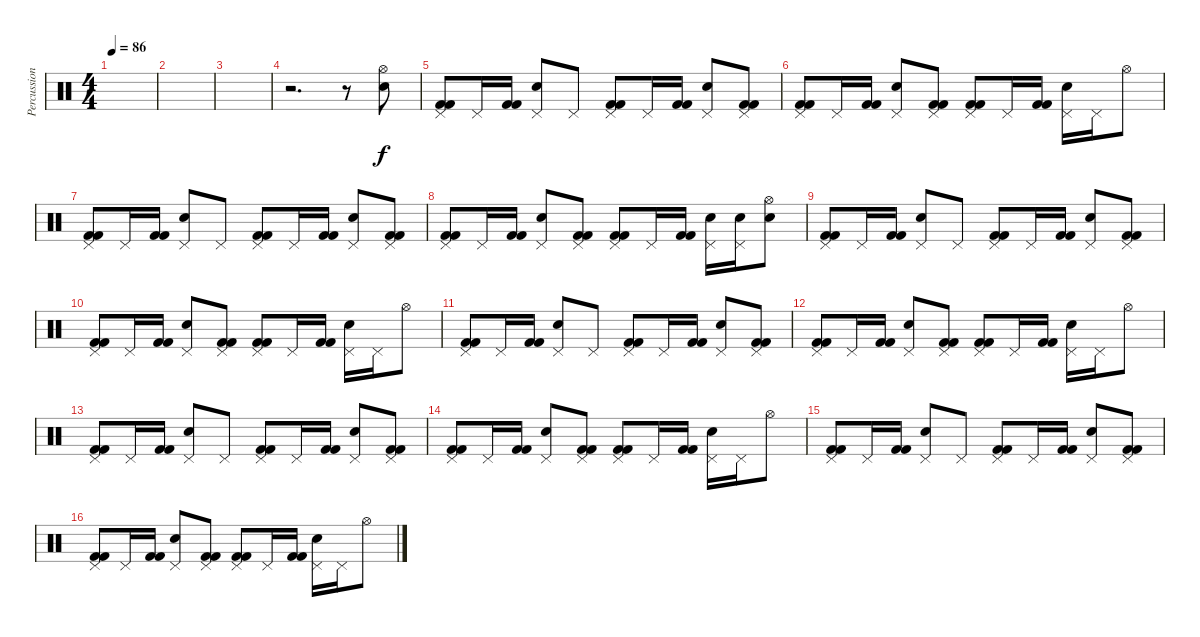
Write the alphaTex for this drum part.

\track ("Percussion" "Percussion") {instrument percussion}
\staff {score}
\articulation defaults
\ts (4 4)
\tempo 86
\clef neutral
\ks c
|
|
|
r.2{d} r.8 ("Hi-Hat (open)" "Snare (hit) 2").8 |
("Pedal Hi-Hat (hit)" "Kick (hit) 2" "Kick (hit) 2").8 "Pedal Hi-Hat (hit)".16 ("Kick (hit) 2" "Kick (hit) 2").16 ("Pedal Hi-Hat (hit)" "Snare (hit) 2").8 "Pedal Hi-Hat (hit)".8 ("Pedal Hi-Hat (hit)" "Kick (hit) 2" "Kick (hit) 2").8 "Pedal Hi-Hat (hit)".16 ("Kick (hit) 2" "Kick (hit) 2").16 ("Pedal Hi-Hat (hit)" "Snare (hit) 2").8 ("Pedal Hi-Hat (hit)" "Kick (hit) 2" "Kick (hit) 2").8 |
("Pedal Hi-Hat (hit)" "Kick (hit) 2" "Kick (hit) 2").8 "Pedal Hi-Hat (hit)".16 ("Kick (hit) 2" "Kick (hit) 2").16 ("Pedal Hi-Hat (hit)" "Snare (hit) 2").8 ("Pedal Hi-Hat (hit)" "Kick (hit) 2" "Kick (hit) 2").8 ("Pedal Hi-Hat (hit)" "Kick (hit) 2" "Kick (hit) 2").8 "Pedal Hi-Hat (hit)".16 ("Kick (hit) 2" "Kick (hit) 2").16 ("Pedal Hi-Hat (hit)" "Snare (hit) 2").16 "Pedal Hi-Hat (hit)".16 "Hi-Hat (open)".8 |
("Pedal Hi-Hat (hit)" "Kick (hit) 2" "Kick (hit) 2").8 "Pedal Hi-Hat (hit)".16 ("Kick (hit) 2" "Kick (hit) 2").16 ("Pedal Hi-Hat (hit)" "Snare (hit) 2").8 "Pedal Hi-Hat (hit)".8 ("Pedal Hi-Hat (hit)" "Kick (hit) 2" "Kick (hit) 2").8 "Pedal Hi-Hat (hit)".16 ("Kick (hit) 2" "Kick (hit) 2").16 ("Pedal Hi-Hat (hit)" "Snare (hit) 2").8 ("Pedal Hi-Hat (hit)" "Kick (hit) 2" "Kick (hit) 2").8 |
("Pedal Hi-Hat (hit)" "Kick (hit) 2" "Kick (hit) 2").8 "Pedal Hi-Hat (hit)".16 ("Kick (hit) 2" "Kick (hit) 2").16 ("Pedal Hi-Hat (hit)" "Snare (hit) 2").8 ("Pedal Hi-Hat (hit)" "Kick (hit) 2" "Kick (hit) 2").8 ("Pedal Hi-Hat (hit)" "Kick (hit) 2" "Kick (hit) 2").8 "Pedal Hi-Hat (hit)".16 ("Kick (hit) 2" "Kick (hit) 2").16 ("Pedal Hi-Hat (hit)" "Snare (hit) 2").16 ("Pedal Hi-Hat (hit)" "Snare (hit) 2").16 ("Hi-Hat (open)" "Snare (hit) 2").8 |
("Pedal Hi-Hat (hit)" "Kick (hit) 2" "Kick (hit) 2").8 "Pedal Hi-Hat (hit)".16 ("Kick (hit) 2" "Kick (hit) 2").16 ("Pedal Hi-Hat (hit)" "Snare (hit) 2").8 "Pedal Hi-Hat (hit)".8 ("Pedal Hi-Hat (hit)" "Kick (hit) 2" "Kick (hit) 2").8 "Pedal Hi-Hat (hit)".16 ("Kick (hit) 2" "Kick (hit) 2").16 ("Pedal Hi-Hat (hit)" "Snare (hit) 2").8 ("Pedal Hi-Hat (hit)" "Kick (hit) 2" "Kick (hit) 2").8 |
("Pedal Hi-Hat (hit)" "Kick (hit) 2" "Kick (hit) 2").8 "Pedal Hi-Hat (hit)".16 ("Kick (hit) 2" "Kick (hit) 2").16 ("Pedal Hi-Hat (hit)" "Snare (hit) 2").8 ("Pedal Hi-Hat (hit)" "Kick (hit) 2" "Kick (hit) 2").8 ("Pedal Hi-Hat (hit)" "Kick (hit) 2" "Kick (hit) 2").8 "Pedal Hi-Hat (hit)".16 ("Kick (hit) 2" "Kick (hit) 2").16 ("Pedal Hi-Hat (hit)" "Snare (hit) 2").16 "Pedal Hi-Hat (hit)".16 "Hi-Hat (open)".8 |
("Pedal Hi-Hat (hit)" "Kick (hit) 2" "Kick (hit) 2").8 "Pedal Hi-Hat (hit)".16 ("Kick (hit) 2" "Kick (hit) 2").16 ("Pedal Hi-Hat (hit)" "Snare (hit) 2").8 "Pedal Hi-Hat (hit)".8 ("Pedal Hi-Hat (hit)" "Kick (hit) 2" "Kick (hit) 2").8 "Pedal Hi-Hat (hit)".16 ("Kick (hit) 2" "Kick (hit) 2").16 ("Pedal Hi-Hat (hit)" "Snare (hit) 2").8 ("Pedal Hi-Hat (hit)" "Kick (hit) 2" "Kick (hit) 2").8 |
("Pedal Hi-Hat (hit)" "Kick (hit) 2" "Kick (hit) 2").8 "Pedal Hi-Hat (hit)".16 ("Kick (hit) 2" "Kick (hit) 2").16 ("Pedal Hi-Hat (hit)" "Snare (hit) 2").8 ("Pedal Hi-Hat (hit)" "Kick (hit) 2" "Kick (hit) 2").8 ("Pedal Hi-Hat (hit)" "Kick (hit) 2" "Kick (hit) 2").8 "Pedal Hi-Hat (hit)".16 ("Kick (hit) 2" "Kick (hit) 2").16 ("Pedal Hi-Hat (hit)" "Snare (hit) 2").16 "Pedal Hi-Hat (hit)".16 "Hi-Hat (open)".8 |
("Pedal Hi-Hat (hit)" "Kick (hit) 2" "Kick (hit) 2").8 "Pedal Hi-Hat (hit)".16 ("Kick (hit) 2" "Kick (hit) 2").16 ("Pedal Hi-Hat (hit)" "Snare (hit) 2").8 "Pedal Hi-Hat (hit)".8 ("Pedal Hi-Hat (hit)" "Kick (hit) 2" "Kick (hit) 2").8 "Pedal Hi-Hat (hit)".16 ("Kick (hit) 2" "Kick (hit) 2").16 ("Pedal Hi-Hat (hit)" "Snare (hit) 2").8 ("Pedal Hi-Hat (hit)" "Kick (hit) 2" "Kick (hit) 2").8 |
("Pedal Hi-Hat (hit)" "Kick (hit) 2" "Kick (hit) 2").8 "Pedal Hi-Hat (hit)".16 ("Kick (hit) 2" "Kick (hit) 2").16 ("Pedal Hi-Hat (hit)" "Snare (hit) 2").8 ("Pedal Hi-Hat (hit)" "Kick (hit) 2" "Kick (hit) 2").8 ("Pedal Hi-Hat (hit)" "Kick (hit) 2" "Kick (hit) 2").8 "Pedal Hi-Hat (hit)".16 ("Kick (hit) 2" "Kick (hit) 2").16 ("Pedal Hi-Hat (hit)" "Snare (hit) 2").16 "Pedal Hi-Hat (hit)".16 "Hi-Hat (open)".8 |
("Pedal Hi-Hat (hit)" "Kick (hit) 2" "Kick (hit) 2").8 "Pedal Hi-Hat (hit)".16 ("Kick (hit) 2" "Kick (hit) 2").16 ("Pedal Hi-Hat (hit)" "Snare (hit) 2").8 "Pedal Hi-Hat (hit)".8 ("Pedal Hi-Hat (hit)" "Kick (hit) 2" "Kick (hit) 2").8 "Pedal Hi-Hat (hit)".16 ("Kick (hit) 2" "Kick (hit) 2").16 ("Pedal Hi-Hat (hit)" "Snare (hit) 2").8 ("Pedal Hi-Hat (hit)" "Kick (hit) 2" "Kick (hit) 2").8 |
("Pedal Hi-Hat (hit)" "Kick (hit) 2" "Kick (hit) 2").8 "Pedal Hi-Hat (hit)".16 ("Kick (hit) 2" "Kick (hit) 2").16 ("Pedal Hi-Hat (hit)" "Snare (hit) 2").8 ("Pedal Hi-Hat (hit)" "Kick (hit) 2" "Kick (hit) 2").8 ("Pedal Hi-Hat (hit)" "Kick (hit) 2" "Kick (hit) 2").8 "Pedal Hi-Hat (hit)".16 ("Kick (hit) 2" "Kick (hit) 2").16 ("Pedal Hi-Hat (hit)" "Snare (hit) 2").16 "Pedal Hi-Hat (hit)".16 "Hi-Hat (open)".8
